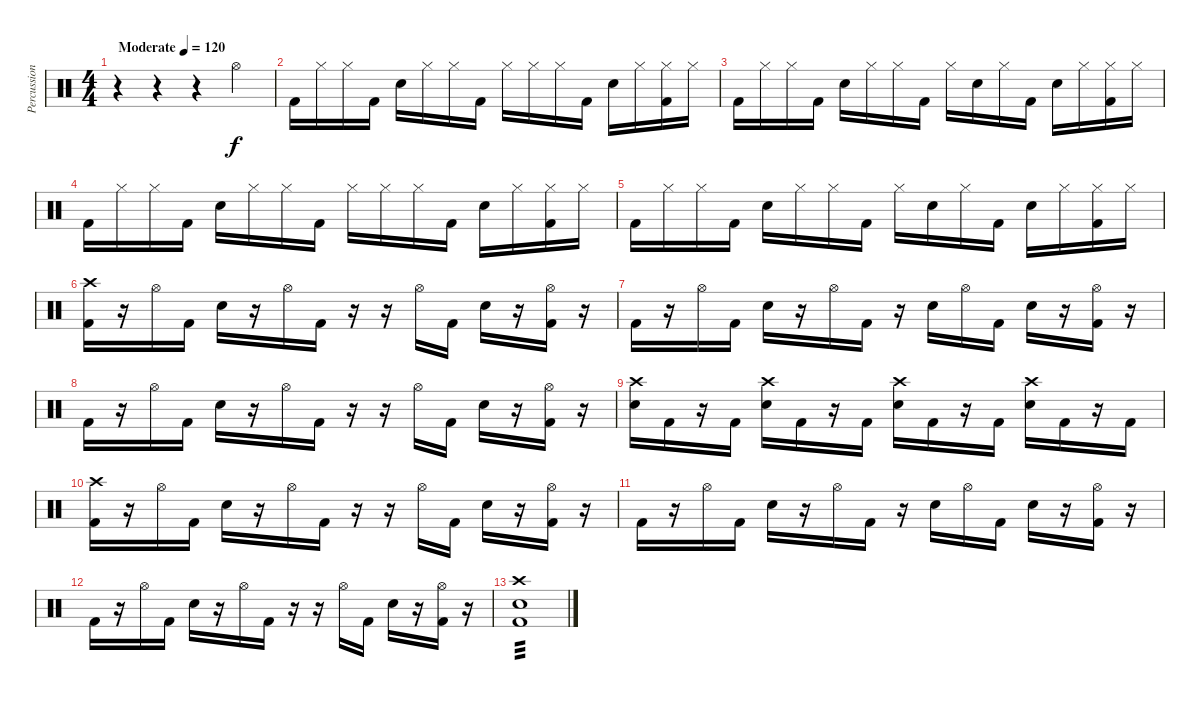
\track ("Percussion" "Percussion") {instrument percussion}
\staff {score}
\articulation defaults
\ts (4 4)
\tempo (120 "Moderate")
\clef neutral
\ks c
r.4{dy f} r.4 r.4 "Hi-Hat (open)".4 |
"Kick (hit) 2".16 "Hi-Hat (closed)".16 "Hi-Hat (closed)".16 "Kick (hit) 2".16 "Electric Snare (hit)".16 "Hi-Hat (closed)".16 "Hi-Hat (closed)".16 "Kick (hit) 2".16 "Hi-Hat (closed)".16 "Hi-Hat (closed)".16 "Hi-Hat (closed)".16 "Kick (hit) 2".16 "Electric Snare (hit)".16 "Hi-Hat (closed)".16 ("Hi-Hat (closed)" "Kick (hit) 2").16 "Hi-Hat (closed)".16 |
"Kick (hit) 2".16 "Hi-Hat (closed)".16 "Hi-Hat (closed)".16 "Kick (hit) 2".16 "Electric Snare (hit)".16 "Hi-Hat (closed)".16 "Hi-Hat (closed)".16 "Kick (hit) 2".16 "Hi-Hat (closed)".16 "Electric Snare (hit)".16 "Hi-Hat (closed)".16 "Kick (hit) 2".16 "Electric Snare (hit)".16 "Hi-Hat (closed)".16 ("Hi-Hat (closed)" "Kick (hit) 2").16 "Hi-Hat (closed)".16 |
"Kick (hit) 2".16 "Hi-Hat (closed)".16 "Hi-Hat (closed)".16 "Kick (hit) 2".16 "Electric Snare (hit)".16 "Hi-Hat (closed)".16 "Hi-Hat (closed)".16 "Kick (hit) 2".16 "Hi-Hat (closed)".16 "Hi-Hat (closed)".16 "Hi-Hat (closed)".16 "Kick (hit) 2".16 "Electric Snare (hit)".16 "Hi-Hat (closed)".16 ("Hi-Hat (closed)" "Kick (hit) 2").16 "Hi-Hat (closed)".16 |
"Kick (hit) 2".16 "Hi-Hat (closed)".16 "Hi-Hat (closed)".16 "Kick (hit) 2".16 "Electric Snare (hit)".16 "Hi-Hat (closed)".16 "Hi-Hat (closed)".16 "Kick (hit) 2".16 "Hi-Hat (closed)".16 "Electric Snare (hit)".16 "Hi-Hat (closed)".16 "Kick (hit) 2".16 "Electric Snare (hit)".16 "Hi-Hat (closed)".16 ("Hi-Hat (closed)" "Kick (hit) 2").16 "Hi-Hat (closed)".16 |
("Crash high (hit)" "Kick (hit) 2").16 r.16 "Hi-Hat (open)".16 "Kick (hit) 2".16 "Electric Snare (hit)".16 r.16 "Hi-Hat (open)".16 "Kick (hit) 2".16 r.16 r.16 "Hi-Hat (open)".16 "Kick (hit) 2".16 "Electric Snare (hit)".16 r.16 ("Hi-Hat (open)" "Kick (hit) 2").16 r.16 |
"Kick (hit) 2".16 r.16 "Hi-Hat (open)".16 "Kick (hit) 2".16 "Electric Snare (hit)".16 r.16 "Hi-Hat (open)".16 "Kick (hit) 2".16 r.16 "Electric Snare (hit)".16 "Hi-Hat (open)".16 "Kick (hit) 2".16 "Electric Snare (hit)".16 r.16 ("Hi-Hat (open)" "Kick (hit) 2").16 r.16 |
"Kick (hit) 2".16 r.16 "Hi-Hat (open)".16 "Kick (hit) 2".16 "Electric Snare (hit)".16 r.16 "Hi-Hat (open)".16 "Kick (hit) 2".16 r.16 r.16 "Hi-Hat (open)".16 "Kick (hit) 2".16 "Electric Snare (hit)".16 r.16 ("Hi-Hat (open)" "Kick (hit) 2").16 r.16 |
("Crash high (hit)" "Electric Snare (hit)").16 "Kick (hit) 2".16 r.16 "Kick (hit) 2".16 ("Crash high (hit)" "Electric Snare (hit)").16 "Kick (hit) 2".16 r.16 "Kick (hit) 2".16 ("Crash high (hit)" "Electric Snare (hit)").16 "Kick (hit) 2".16 r.16 "Kick (hit) 2".16 ("Crash high (hit)" "Electric Snare (hit)").16 "Kick (hit) 2".16 r.16 "Kick (hit) 2".16 |
("Crash high (hit)" "Kick (hit) 2").16 r.16 "Hi-Hat (open)".16 "Kick (hit) 2".16 "Electric Snare (hit)".16 r.16 "Hi-Hat (open)".16 "Kick (hit) 2".16 r.16 r.16 "Hi-Hat (open)".16 "Kick (hit) 2".16 "Electric Snare (hit)".16 r.16 ("Hi-Hat (open)" "Kick (hit) 2").16 r.16 |
"Kick (hit) 2".16 r.16 "Hi-Hat (open)".16 "Kick (hit) 2".16 "Electric Snare (hit)".16 r.16 "Hi-Hat (open)".16 "Kick (hit) 2".16 r.16 "Electric Snare (hit)".16 "Hi-Hat (open)".16 "Kick (hit) 2".16 "Electric Snare (hit)".16 r.16 ("Hi-Hat (open)" "Kick (hit) 2").16 r.16 |
"Kick (hit) 2".16 r.16 "Hi-Hat (open)".16 "Kick (hit) 2".16 "Electric Snare (hit)".16 r.16 "Hi-Hat (open)".16 "Kick (hit) 2".16 r.16 r.16 "Hi-Hat (open)".16 "Kick (hit) 2".16 "Electric Snare (hit)".16 r.16 ("Hi-Hat (open)" "Kick (hit) 2").16 r.16 |
("Crash high (hit)" "Electric Snare (hit)" "Kick (hit) 2").1{tp 3}
